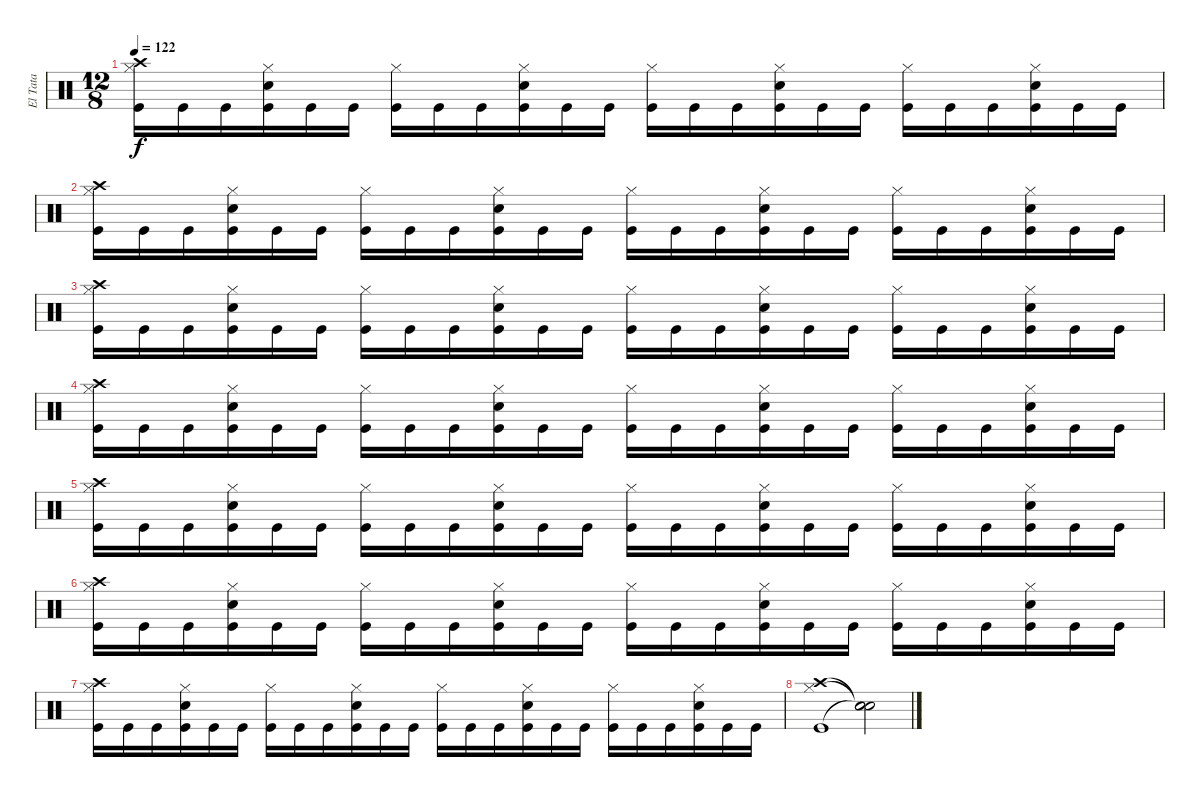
\track ("El Tata" "El Tata") {instrument percussion}
\staff {score}
\articulation defaults
\ts (12 8)
\tempo 122
\clef neutral
\ks c
("Kick (hit)" "Hi-Hat (closed)" "Crash high (hit)").16{dy f} "Kick (hit)".16 "Kick (hit)".16 ("Kick (hit)" "Hi-Hat (closed)" "Electric Snare (hit)").16 "Kick (hit)".16 "Kick (hit)".16 ("Kick (hit)" "Hi-Hat (closed)").16 "Kick (hit)".16 "Kick (hit)".16 ("Kick (hit)" "Hi-Hat (closed)" "Electric Snare (hit)").16 "Kick (hit)".16 "Kick (hit)".16 ("Kick (hit)" "Hi-Hat (closed)").16 "Kick (hit)".16 "Kick (hit)".16 ("Kick (hit)" "Hi-Hat (closed)" "Electric Snare (hit)").16 "Kick (hit)".16 "Kick (hit)".16 ("Kick (hit)" "Hi-Hat (closed)").16 "Kick (hit)".16 "Kick (hit)".16 ("Kick (hit)" "Hi-Hat (closed)" "Electric Snare (hit)").16 "Kick (hit)".16 "Kick (hit)".16 |
("Kick (hit)" "Hi-Hat (closed)" "Crash high (hit)").16 "Kick (hit)".16 "Kick (hit)".16 ("Kick (hit)" "Hi-Hat (closed)" "Electric Snare (hit)").16 "Kick (hit)".16 "Kick (hit)".16 ("Kick (hit)" "Hi-Hat (closed)").16 "Kick (hit)".16 "Kick (hit)".16 ("Kick (hit)" "Hi-Hat (closed)" "Electric Snare (hit)").16 "Kick (hit)".16 "Kick (hit)".16 ("Kick (hit)" "Hi-Hat (closed)").16 "Kick (hit)".16 "Kick (hit)".16 ("Kick (hit)" "Hi-Hat (closed)" "Electric Snare (hit)").16 "Kick (hit)".16 "Kick (hit)".16 ("Kick (hit)" "Hi-Hat (closed)").16 "Kick (hit)".16 "Kick (hit)".16 ("Kick (hit)" "Hi-Hat (closed)" "Electric Snare (hit)").16 "Kick (hit)".16 "Kick (hit)".16 |
("Kick (hit)" "Hi-Hat (closed)" "Crash high (hit)").16 "Kick (hit)".16 "Kick (hit)".16 ("Kick (hit)" "Hi-Hat (closed)" "Electric Snare (hit)").16 "Kick (hit)".16 "Kick (hit)".16 ("Kick (hit)" "Hi-Hat (closed)").16 "Kick (hit)".16 "Kick (hit)".16 ("Kick (hit)" "Hi-Hat (closed)" "Electric Snare (hit)").16 "Kick (hit)".16 "Kick (hit)".16 ("Kick (hit)" "Hi-Hat (closed)").16 "Kick (hit)".16 "Kick (hit)".16 ("Kick (hit)" "Hi-Hat (closed)" "Electric Snare (hit)").16 "Kick (hit)".16 "Kick (hit)".16 ("Kick (hit)" "Hi-Hat (closed)").16 "Kick (hit)".16 "Kick (hit)".16 ("Kick (hit)" "Hi-Hat (closed)" "Electric Snare (hit)").16 "Kick (hit)".16 "Kick (hit)".16 |
("Kick (hit)" "Hi-Hat (closed)" "Crash high (hit)").16 "Kick (hit)".16 "Kick (hit)".16 ("Kick (hit)" "Hi-Hat (closed)" "Electric Snare (hit)").16 "Kick (hit)".16 "Kick (hit)".16 ("Kick (hit)" "Hi-Hat (closed)").16 "Kick (hit)".16 "Kick (hit)".16 ("Kick (hit)" "Hi-Hat (closed)" "Electric Snare (hit)").16 "Kick (hit)".16 "Kick (hit)".16 ("Kick (hit)" "Hi-Hat (closed)").16 "Kick (hit)".16 "Kick (hit)".16 ("Kick (hit)" "Hi-Hat (closed)" "Electric Snare (hit)").16 "Kick (hit)".16 "Kick (hit)".16 ("Kick (hit)" "Hi-Hat (closed)").16 "Kick (hit)".16 "Kick (hit)".16 ("Kick (hit)" "Hi-Hat (closed)" "Electric Snare (hit)").16 "Kick (hit)".16 "Kick (hit)".16 |
("Kick (hit)" "Hi-Hat (closed)" "Crash high (hit)").16 "Kick (hit)".16 "Kick (hit)".16 ("Kick (hit)" "Hi-Hat (closed)" "Electric Snare (hit)").16 "Kick (hit)".16 "Kick (hit)".16 ("Kick (hit)" "Hi-Hat (closed)").16 "Kick (hit)".16 "Kick (hit)".16 ("Kick (hit)" "Hi-Hat (closed)" "Electric Snare (hit)").16 "Kick (hit)".16 "Kick (hit)".16 ("Kick (hit)" "Hi-Hat (closed)").16 "Kick (hit)".16 "Kick (hit)".16 ("Kick (hit)" "Hi-Hat (closed)" "Electric Snare (hit)").16 "Kick (hit)".16 "Kick (hit)".16 ("Kick (hit)" "Hi-Hat (closed)").16 "Kick (hit)".16 "Kick (hit)".16 ("Kick (hit)" "Hi-Hat (closed)" "Electric Snare (hit)").16 "Kick (hit)".16 "Kick (hit)".16 |
("Kick (hit)" "Hi-Hat (closed)" "Crash high (hit)").16 "Kick (hit)".16 "Kick (hit)".16 ("Kick (hit)" "Hi-Hat (closed)" "Electric Snare (hit)").16 "Kick (hit)".16 "Kick (hit)".16 ("Kick (hit)" "Hi-Hat (closed)").16 "Kick (hit)".16 "Kick (hit)".16 ("Kick (hit)" "Hi-Hat (closed)" "Electric Snare (hit)").16 "Kick (hit)".16 "Kick (hit)".16 ("Kick (hit)" "Hi-Hat (closed)").16 "Kick (hit)".16 "Kick (hit)".16 ("Kick (hit)" "Hi-Hat (closed)" "Electric Snare (hit)").16 "Kick (hit)".16 "Kick (hit)".16 ("Kick (hit)" "Hi-Hat (closed)").16 "Kick (hit)".16 "Kick (hit)".16 ("Kick (hit)" "Hi-Hat (closed)" "Electric Snare (hit)").16 "Kick (hit)".16 "Kick (hit)".16 |
("Kick (hit)" "Hi-Hat (closed)" "Crash high (hit)").16 "Kick (hit)".16 "Kick (hit)".16 ("Kick (hit)" "Hi-Hat (closed)" "Electric Snare (hit)").16 "Kick (hit)".16 "Kick (hit)".16 ("Kick (hit)" "Hi-Hat (closed)").16 "Kick (hit)".16 "Kick (hit)".16 ("Kick (hit)" "Hi-Hat (closed)" "Electric Snare (hit)").16 "Kick (hit)".16 "Kick (hit)".16 ("Kick (hit)" "Hi-Hat (closed)").16 "Kick (hit)".16 "Kick (hit)".16 ("Kick (hit)" "Hi-Hat (closed)" "Electric Snare (hit)").16 "Kick (hit)".16 "Kick (hit)".16 ("Kick (hit)" "Hi-Hat (closed)").16 "Kick (hit)".16 "Kick (hit)".16 ("Kick (hit)" "Hi-Hat (closed)" "Electric Snare (hit)").16 "Kick (hit)".16 "Kick (hit)".16 |
("Kick (hit)" "Hi-Hat (closed)" "Crash high (hit)").1 ("Snare (hit)"{t} "Snare (hit)"{t} "Snare (hit)"{t}).2
